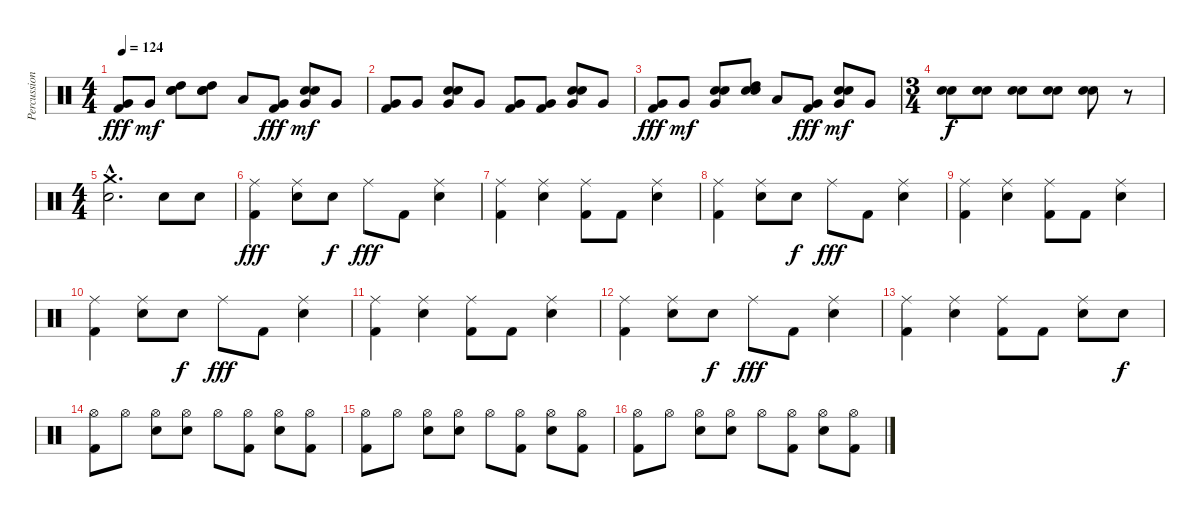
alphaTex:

\track ("Percussion" "Percussion") {instrument percussion}
\staff {score}
\articulation defaults
\ts (4 4)
\tempo 124
\clef neutral
\ks c
("Very Low Tom (hit)" "Kick (hit) 2").8{dy fff} "Very Low Tom (hit)".8{dy mf} ("Hand Clap (hit)" "High Tom (hit)" "Snare (hit) 2").8 ("Hand Clap (hit)" "High Tom (hit)" "Snare (hit) 2").8 "Low Tom (hit)".8 ("Very Low Tom (hit)" "Kick (hit) 2").8{dy fff} ("Hand Clap (hit)" "Very Low Tom (hit)" "Snare (hit) 2").8{dy mf} "Very Low Tom (hit)".8 |
("Very Low Tom (hit)" "Kick (hit) 2").8 "Very Low Tom (hit)".8 ("Hand Clap (hit)" "Very Low Tom (hit)" "Snare (hit) 2").8 "Very Low Tom (hit)".8 ("Very Low Tom (hit)" "Kick (hit) 2").8 ("Very Low Tom (hit)" "Kick (hit) 2").8 ("Hand Clap (hit)" "Very Low Tom (hit)" "Snare (hit) 2").8 "Very Low Tom (hit)".8 |
("Very Low Tom (hit)" "Kick (hit) 2").8{dy fff} "Very Low Tom (hit)".8{dy mf} ("Hand Clap (hit)" "Very Low Tom (hit)" "Snare (hit) 2").8 ("Hand Clap (hit)" "High Tom (hit)" "Snare (hit) 2").8 "Low Tom (hit)".8 ("Very Low Tom (hit)" "Kick (hit) 2").8{dy fff} ("Hand Clap (hit)" "Very Low Tom (hit)" "Snare (hit) 2").8{dy mf} "Very Low Tom (hit)".8 |
\ts (3 4)
("Hand Clap (hit)" "Snare (hit) 2").8{dy f} ("Hand Clap (hit)" "Snare (hit) 2").8 ("Hand Clap (hit)" "Snare (hit) 2").8 ("Hand Clap (hit)" "Snare (hit) 2").8 ("Hand Clap (hit)" "Snare (hit) 2").8 r.8 |
\ts (4 4)
("Crash medium (hit)"{hac} "Snare (hit) 2"{hac}).2{d} "Snare (hit) 2".8 "Snare (hit) 2".8 |
("Ride (middle)" "Kick (hit) 2").4{dy fff} ("Ride (middle)" "Snare (hit) 2").8 "Snare (hit) 2".8{dy f} "Ride (middle)".8{dy fff} "Kick (hit) 2".8 ("Ride (middle)" "Snare (hit) 2").4 |
("Ride (middle)" "Kick (hit) 2").4 ("Ride (middle)" "Snare (hit) 2").4 ("Ride (middle)" "Kick (hit) 2").8 "Kick (hit) 2".8 ("Ride (middle)" "Snare (hit) 2").4 |
("Ride (middle)" "Kick (hit) 2").4 ("Ride (middle)" "Snare (hit) 2").8 "Snare (hit) 2".8{dy f} "Ride (middle)".8{dy fff} "Kick (hit) 2".8 ("Ride (middle)" "Snare (hit) 2").4 |
("Ride (middle)" "Kick (hit) 2").4 ("Ride (middle)" "Snare (hit) 2").4 ("Ride (middle)" "Kick (hit) 2").8 "Kick (hit) 2".8 ("Ride (middle)" "Snare (hit) 2").4 |
("Ride (middle)" "Kick (hit) 2").4 ("Ride (middle)" "Snare (hit) 2").8 "Snare (hit) 2".8{dy f} "Ride (middle)".8{dy fff} "Kick (hit) 2".8 ("Ride (middle)" "Snare (hit) 2").4 |
("Ride (middle)" "Kick (hit) 2").4 ("Ride (middle)" "Snare (hit) 2").4 ("Ride (middle)" "Kick (hit) 2").8 "Kick (hit) 2".8 ("Ride (middle)" "Snare (hit) 2").4 |
("Ride (middle)" "Kick (hit) 2").4 ("Ride (middle)" "Snare (hit) 2").8 "Snare (hit) 2".8{dy f} "Ride (middle)".8{dy fff} "Kick (hit) 2".8 ("Ride (middle)" "Snare (hit) 2").4 |
("Ride (middle)" "Kick (hit) 2").4 ("Ride (middle)" "Snare (hit) 2").4 ("Ride (middle)" "Kick (hit) 2").8 "Kick (hit) 2".8 ("Ride (middle)" "Snare (hit) 2").8 "Snare (hit) 2".8{dy f} |
("Hi-Hat (open)" "Kick (hit) 2").8 "Hi-Hat (open)".8 ("Hi-Hat (open)" "Snare (hit) 2").8 ("Hi-Hat (open)" "Snare (hit) 2").8 "Hi-Hat (open)".8 ("Hi-Hat (open)" "Kick (hit) 2").8 ("Hi-Hat (open)" "Snare (hit) 2").8 ("Hi-Hat (open)" "Kick (hit) 2").8 |
("Hi-Hat (open)" "Kick (hit) 2").8 "Hi-Hat (open)".8 ("Hi-Hat (open)" "Snare (hit) 2").8 ("Hi-Hat (open)" "Snare (hit) 2").8 "Hi-Hat (open)".8 ("Hi-Hat (open)" "Kick (hit) 2").8 ("Hi-Hat (open)" "Snare (hit) 2").8 ("Hi-Hat (open)" "Kick (hit) 2").8 |
("Hi-Hat (open)" "Kick (hit) 2").8 "Hi-Hat (open)".8 ("Hi-Hat (open)" "Snare (hit) 2").8 ("Hi-Hat (open)" "Snare (hit) 2").8 "Hi-Hat (open)".8 ("Hi-Hat (open)" "Kick (hit) 2").8 ("Hi-Hat (open)" "Snare (hit) 2").8 ("Hi-Hat (open)" "Kick (hit) 2").8
